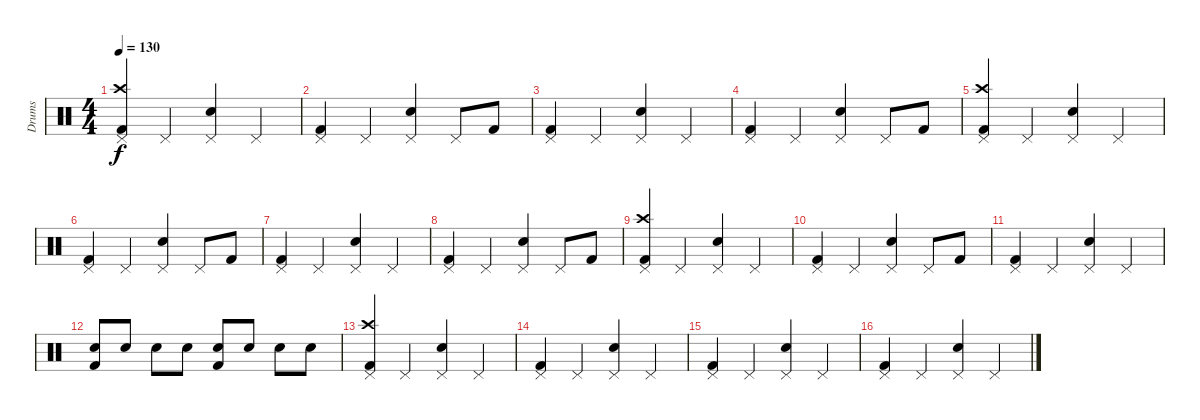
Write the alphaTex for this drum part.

\track ("Drums" "Drums") {instrument percussion}
\staff {score}
\articulation defaults
\ts (4 4)
\tempo 130
\clef neutral
\ks c
("Pedal Hi-Hat (hit)" "Crash high (hit)" "Kick (hit) 2").4{dy f} "Pedal Hi-Hat (hit)".4 ("Pedal Hi-Hat (hit)" "Snare (hit) 2").4 "Pedal Hi-Hat (hit)".4 |
("Pedal Hi-Hat (hit)" "Kick (hit) 2").4 "Pedal Hi-Hat (hit)".4 ("Pedal Hi-Hat (hit)" "Snare (hit) 2").4 "Pedal Hi-Hat (hit)".8 "Kick (hit) 2".8 |
("Pedal Hi-Hat (hit)" "Kick (hit) 2").4 "Pedal Hi-Hat (hit)".4 ("Pedal Hi-Hat (hit)" "Snare (hit) 2").4 "Pedal Hi-Hat (hit)".4 |
("Pedal Hi-Hat (hit)" "Kick (hit) 2").4 "Pedal Hi-Hat (hit)".4 ("Pedal Hi-Hat (hit)" "Snare (hit) 2").4 "Pedal Hi-Hat (hit)".8 "Kick (hit) 2".8 |
("Pedal Hi-Hat (hit)" "Crash high (hit)" "Kick (hit) 2").4 "Pedal Hi-Hat (hit)".4 ("Pedal Hi-Hat (hit)" "Snare (hit) 2").4 "Pedal Hi-Hat (hit)".4 |
("Pedal Hi-Hat (hit)" "Kick (hit) 2").4 "Pedal Hi-Hat (hit)".4 ("Pedal Hi-Hat (hit)" "Snare (hit) 2").4 "Pedal Hi-Hat (hit)".8 "Kick (hit) 2".8 |
("Pedal Hi-Hat (hit)" "Kick (hit) 2").4 "Pedal Hi-Hat (hit)".4 ("Pedal Hi-Hat (hit)" "Snare (hit) 2").4 "Pedal Hi-Hat (hit)".4 |
("Pedal Hi-Hat (hit)" "Kick (hit) 2").4 "Pedal Hi-Hat (hit)".4 ("Pedal Hi-Hat (hit)" "Snare (hit) 2").4 "Pedal Hi-Hat (hit)".8 "Kick (hit) 2".8 |
("Pedal Hi-Hat (hit)" "Crash high (hit)" "Kick (hit) 2").4 "Pedal Hi-Hat (hit)".4 ("Pedal Hi-Hat (hit)" "Snare (hit) 2").4 "Pedal Hi-Hat (hit)".4 |
("Pedal Hi-Hat (hit)" "Kick (hit) 2").4 "Pedal Hi-Hat (hit)".4 ("Pedal Hi-Hat (hit)" "Snare (hit) 2").4 "Pedal Hi-Hat (hit)".8 "Kick (hit) 2".8 |
("Pedal Hi-Hat (hit)" "Kick (hit) 2").4 "Pedal Hi-Hat (hit)".4 ("Pedal Hi-Hat (hit)" "Snare (hit) 2").4 "Pedal Hi-Hat (hit)".4 |
("Snare (hit) 2" "Kick (hit) 2").8 "Snare (hit) 2".8 "Snare (hit) 2".8 "Snare (hit) 2".8 ("Snare (hit) 2" "Kick (hit) 2").8 "Snare (hit) 2".8 "Snare (hit) 2".8 "Snare (hit) 2".8 |
("Pedal Hi-Hat (hit)" "Crash high (hit)" "Kick (hit) 2").4 "Pedal Hi-Hat (hit)".4 ("Pedal Hi-Hat (hit)" "Snare (hit) 2").4 "Pedal Hi-Hat (hit)".4 |
("Pedal Hi-Hat (hit)" "Kick (hit) 2").4 "Pedal Hi-Hat (hit)".4 ("Pedal Hi-Hat (hit)" "Snare (hit) 2").4 "Pedal Hi-Hat (hit)".4 |
("Pedal Hi-Hat (hit)" "Kick (hit) 2").4 "Pedal Hi-Hat (hit)".4 ("Pedal Hi-Hat (hit)" "Snare (hit) 2").4 "Pedal Hi-Hat (hit)".4 |
("Pedal Hi-Hat (hit)" "Kick (hit) 2").4 "Pedal Hi-Hat (hit)".4 ("Pedal Hi-Hat (hit)" "Snare (hit) 2").4 "Pedal Hi-Hat (hit)".4
